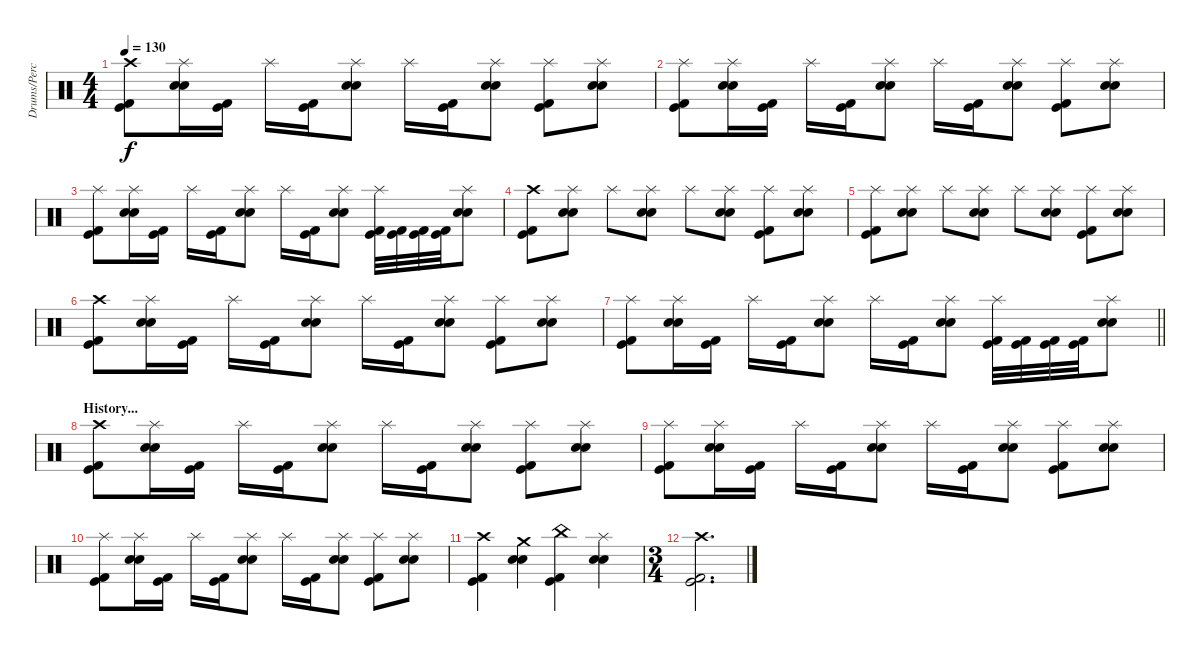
\track ("Drums/Percussion" "Drums/Perc") {instrument percussion}
\staff {score}
\articulation defaults
\ts (4 4)
\tempo 130
\clef neutral
\ks c
("Crash high (hit)" "Kick (hit)" "Kick (hit) 2").8{dy f} ("Splash (hit)" "Electric Snare (hit)" "Snare (hit) 2").16 ("Kick (hit)" "Kick (hit) 2").16 "Splash (hit)".16 ("Kick (hit)" "Kick (hit) 2").16 ("Splash (hit)" "Electric Snare (hit)" "Snare (hit) 2").8 "Splash (hit)".16 ("Kick (hit)" "Kick (hit) 2").16 ("Splash (hit)" "Electric Snare (hit)" "Snare (hit) 2").8 ("Splash (hit)" "Kick (hit)" "Kick (hit) 2").8 ("Splash (hit)" "Electric Snare (hit)" "Snare (hit) 2").8 |
("Splash (hit)" "Kick (hit)" "Kick (hit) 2").8 ("Splash (hit)" "Electric Snare (hit)" "Snare (hit) 2").16 ("Kick (hit)" "Kick (hit) 2").16 "Splash (hit)".16 ("Kick (hit)" "Kick (hit) 2").16 ("Splash (hit)" "Electric Snare (hit)" "Snare (hit) 2").8 "Splash (hit)".16 ("Kick (hit)" "Kick (hit) 2").16 ("Splash (hit)" "Electric Snare (hit)" "Snare (hit) 2").8 ("Splash (hit)" "Kick (hit)" "Kick (hit) 2").8 ("Splash (hit)" "Electric Snare (hit)" "Snare (hit) 2").8 |
("Splash (hit)" "Kick (hit)" "Kick (hit) 2").8 ("Splash (hit)" "Electric Snare (hit)" "Snare (hit) 2").16 ("Kick (hit)" "Kick (hit) 2").16 "Splash (hit)".16 ("Kick (hit)" "Kick (hit) 2").16 ("Splash (hit)" "Electric Snare (hit)" "Snare (hit) 2").8 "Splash (hit)".16 ("Kick (hit)" "Kick (hit) 2").16 ("Splash (hit)" "Electric Snare (hit)" "Snare (hit) 2").8 ("Splash (hit)" "Kick (hit)" "Kick (hit) 2").32 ("Kick (hit)" "Kick (hit) 2").32 ("Kick (hit)" "Kick (hit) 2").32 ("Kick (hit)" "Kick (hit) 2").32 ("Splash (hit)" "Electric Snare (hit)" "Snare (hit) 2").8 |
("Crash high (hit)" "Kick (hit)" "Kick (hit) 2").8 ("Splash (hit)" "Electric Snare (hit)" "Snare (hit) 2").8 "Splash (hit)".8 ("Splash (hit)" "Electric Snare (hit)" "Snare (hit) 2").8 "Splash (hit)".8 ("Splash (hit)" "Electric Snare (hit)" "Snare (hit) 2").8 ("Splash (hit)" "Kick (hit)" "Kick (hit) 2").8 ("Splash (hit)" "Electric Snare (hit)" "Snare (hit) 2").8 |
("Splash (hit)" "Kick (hit)" "Kick (hit) 2").8 ("Splash (hit)" "Electric Snare (hit)" "Snare (hit) 2").8 "Splash (hit)".8 ("Splash (hit)" "Electric Snare (hit)" "Snare (hit) 2").8 "Splash (hit)".8 ("Splash (hit)" "Electric Snare (hit)" "Snare (hit) 2").8 ("Splash (hit)" "Kick (hit)" "Kick (hit) 2").8 ("Splash (hit)" "Electric Snare (hit)" "Snare (hit) 2").8 |
("Crash high (hit)" "Kick (hit)" "Kick (hit) 2").8 ("Splash (hit)" "Electric Snare (hit)" "Snare (hit) 2").16 ("Kick (hit)" "Kick (hit) 2").16 "Splash (hit)".16 ("Kick (hit)" "Kick (hit) 2").16 ("Splash (hit)" "Electric Snare (hit)" "Snare (hit) 2").8 "Splash (hit)".16 ("Kick (hit)" "Kick (hit) 2").16 ("Splash (hit)" "Electric Snare (hit)" "Snare (hit) 2").8 ("Splash (hit)" "Kick (hit)" "Kick (hit) 2").8 ("Splash (hit)" "Electric Snare (hit)" "Snare (hit) 2").8 |
\barLineRight lightlight
("Splash (hit)" "Kick (hit)" "Kick (hit) 2").8 ("Splash (hit)" "Electric Snare (hit)" "Snare (hit) 2").16 ("Kick (hit)" "Kick (hit) 2").16 "Splash (hit)".16 ("Kick (hit)" "Kick (hit) 2").16 ("Splash (hit)" "Electric Snare (hit)" "Snare (hit) 2").8 "Splash (hit)".16 ("Kick (hit)" "Kick (hit) 2").16 ("Splash (hit)" "Electric Snare (hit)" "Snare (hit) 2").8 ("Splash (hit)" "Kick (hit)" "Kick (hit) 2").32 ("Kick (hit)" "Kick (hit) 2").32 ("Kick (hit)" "Kick (hit) 2").32 ("Kick (hit)" "Kick (hit) 2").32 ("Splash (hit)" "Electric Snare (hit)" "Snare (hit) 2").8 |
\section ("" "History...")
("Crash high (hit)" "Kick (hit)" "Kick (hit) 2").8 ("Splash (hit)" "Electric Snare (hit)" "Snare (hit) 2").16 ("Kick (hit)" "Kick (hit) 2").16 "Splash (hit)".16 ("Kick (hit)" "Kick (hit) 2").16 ("Splash (hit)" "Electric Snare (hit)" "Snare (hit) 2").8 "Splash (hit)".16 ("Kick (hit)" "Kick (hit) 2").16 ("Splash (hit)" "Electric Snare (hit)" "Snare (hit) 2").8 ("Splash (hit)" "Kick (hit)" "Kick (hit) 2").8 ("Splash (hit)" "Electric Snare (hit)" "Snare (hit) 2").8 |
("Splash (hit)" "Kick (hit)" "Kick (hit) 2").8 ("Splash (hit)" "Electric Snare (hit)" "Snare (hit) 2").16 ("Kick (hit)" "Kick (hit) 2").16 "Splash (hit)".16 ("Kick (hit)" "Kick (hit) 2").16 ("Splash (hit)" "Electric Snare (hit)" "Snare (hit) 2").8 "Splash (hit)".16 ("Kick (hit)" "Kick (hit) 2").16 ("Splash (hit)" "Electric Snare (hit)" "Snare (hit) 2").8 ("Splash (hit)" "Kick (hit)" "Kick (hit) 2").8 ("Splash (hit)" "Electric Snare (hit)" "Snare (hit) 2").8 |
("Splash (hit)" "Kick (hit)" "Kick (hit) 2").8 ("Splash (hit)" "Electric Snare (hit)" "Snare (hit) 2").16 ("Kick (hit)" "Kick (hit) 2").16 "Splash (hit)".16 ("Kick (hit)" "Kick (hit) 2").16 ("Splash (hit)" "Electric Snare (hit)" "Snare (hit) 2").8 "Splash (hit)".16 ("Kick (hit)" "Kick (hit) 2").16 ("Splash (hit)" "Electric Snare (hit)" "Snare (hit) 2").8 ("Splash (hit)" "Kick (hit)" "Kick (hit) 2").8 ("Splash (hit)" "Electric Snare (hit)" "Snare (hit) 2").8 |
("Crash high (hit)" "Kick (hit)" "Kick (hit) 2").4 ("Crash medium (hit)" "Electric Snare (hit)" "Snare (hit) 2").4 ("China (hit)" "Kick (hit)" "Kick (hit) 2").4 ("Splash (hit)" "Electric Snare (hit)" "Snare (hit) 2").4 |
\ts (3 4)
("Crash high (hit)" "Kick (hit)" "Kick (hit) 2").2{d}
